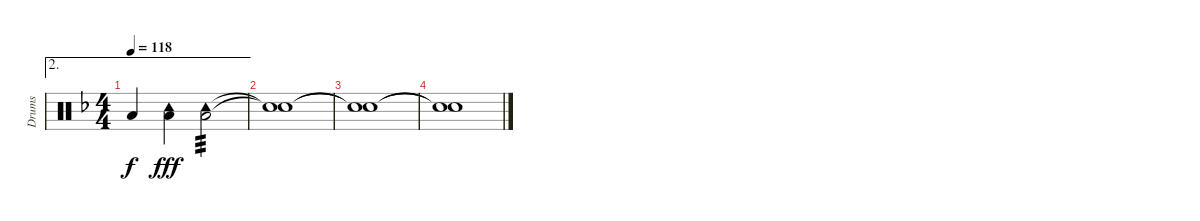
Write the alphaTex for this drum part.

\track ("Drums" "Drums") {instrument percussion}
\staff {score}
\articulation defaults
\ae 2
\ts (4 4)
\tempo 118
\clef neutral
\ks dminor "Low Tom (hit)".4{dy f}
("Low Tom (hit)" "Tambourine (hit)").4{dy fff} ("Low Tom (hit)" "Tambourine (hit)").2{tp 3} |
("Snare (hit)"{t} "Snare (hit)"{t}).1 |
("Snare (hit)"{t} "Snare (hit)"{t}).1 |
("Snare (hit)"{t} "Snare (hit)"{t}).1
